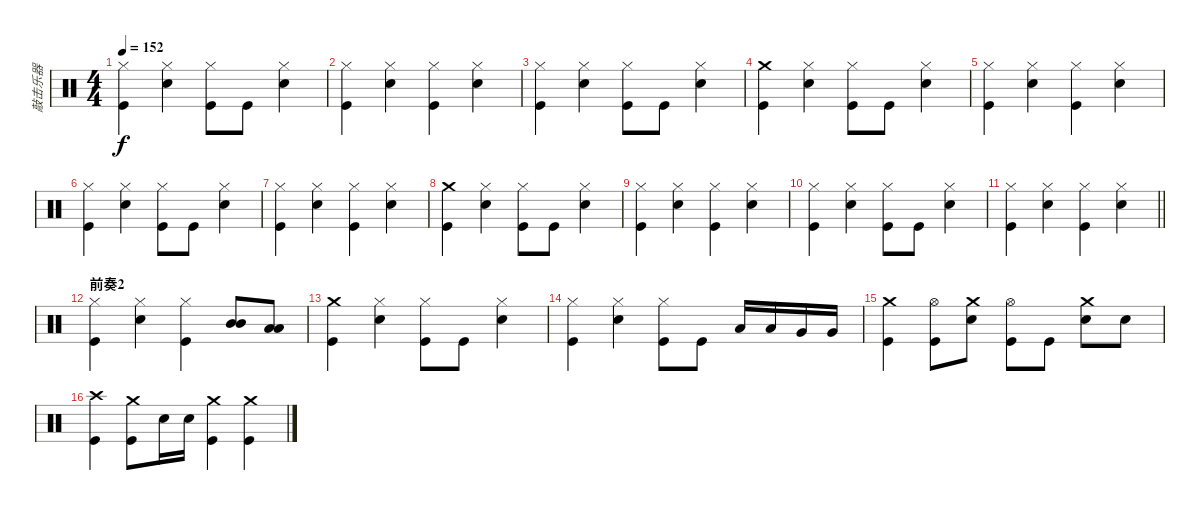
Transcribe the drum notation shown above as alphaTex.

\track ("敲击乐器" "敲击乐器") {instrument percussion}
\staff {score}
\articulation defaults
\ts (4 4)
\tempo 152
\clef neutral
\ks c
("Hi-Hat (closed)" "Kick (hit)").4{dy f} ("Hi-Hat (closed)" "Electric Snare (hit)").4 ("Hi-Hat (closed)" "Kick (hit)").8 "Kick (hit)".8 ("Hi-Hat (closed)" "Electric Snare (hit)").4 |
("Hi-Hat (closed)" "Kick (hit)").4 ("Hi-Hat (closed)" "Electric Snare (hit)").4 ("Hi-Hat (closed)" "Kick (hit)").4 ("Hi-Hat (closed)" "Electric Snare (hit)").4 |
("Hi-Hat (closed)" "Kick (hit)").4 ("Hi-Hat (closed)" "Electric Snare (hit)").4 ("Hi-Hat (closed)" "Kick (hit)").8 "Kick (hit)".8 ("Hi-Hat (closed)" "Electric Snare (hit)").4 |
("Crash medium (hit)" "Kick (hit)").4 ("Hi-Hat (closed)" "Electric Snare (hit)").4 ("Hi-Hat (closed)" "Kick (hit)").8 "Kick (hit)".8 ("Hi-Hat (closed)" "Electric Snare (hit)").4 |
("Hi-Hat (closed)" "Kick (hit)").4 ("Hi-Hat (closed)" "Electric Snare (hit)").4 ("Hi-Hat (closed)" "Kick (hit)").4 ("Hi-Hat (closed)" "Electric Snare (hit)").4 |
("Hi-Hat (closed)" "Kick (hit)").4 ("Hi-Hat (closed)" "Electric Snare (hit)").4 ("Hi-Hat (closed)" "Kick (hit)").8 "Kick (hit)".8 ("Hi-Hat (closed)" "Electric Snare (hit)").4 |
("Hi-Hat (closed)" "Kick (hit)").4 ("Hi-Hat (closed)" "Electric Snare (hit)").4 ("Hi-Hat (closed)" "Kick (hit)").4 ("Hi-Hat (closed)" "Electric Snare (hit)").4 |
("Crash medium (hit)" "Kick (hit)").4 ("Hi-Hat (closed)" "Electric Snare (hit)").4 ("Hi-Hat (closed)" "Kick (hit)").8 "Kick (hit)".8 ("Hi-Hat (closed)" "Electric Snare (hit)").4 |
("Hi-Hat (closed)" "Kick (hit)").4 ("Hi-Hat (closed)" "Electric Snare (hit)").4 ("Hi-Hat (closed)" "Kick (hit)").4 ("Hi-Hat (closed)" "Electric Snare (hit)").4 |
("Hi-Hat (closed)" "Kick (hit)").4 ("Hi-Hat (closed)" "Electric Snare (hit)").4 ("Hi-Hat (closed)" "Kick (hit)").8 "Kick (hit)".8 ("Hi-Hat (closed)" "Electric Snare (hit)").4 |
\barLineRight lightlight
("Hi-Hat (closed)" "Kick (hit)").4 ("Hi-Hat (closed)" "Electric Snare (hit)").4 ("Hi-Hat (closed)" "Kick (hit)").4 ("Hi-Hat (closed)" "Electric Snare (hit)").4 |
\section ("" "前奏2")
("Hi-Hat (closed)" "Kick (hit)").4 ("Hi-Hat (closed)" "Electric Snare (hit)").4 ("Hi-Hat (closed)" "Kick (hit)").4 ("Mid Tom (hit)" "Mid Tom (hit)").8 ("Low Tom (hit)" "Low Tom (hit)").8 |
("Crash medium (hit)" "Kick (hit)").4 ("Hi-Hat (closed)" "Electric Snare (hit)").4 ("Hi-Hat (closed)" "Kick (hit)").8 "Kick (hit)".8 ("Hi-Hat (closed)" "Electric Snare (hit)").4 |
("Hi-Hat (closed)" "Kick (hit)").4 ("Hi-Hat (closed)" "Electric Snare (hit)").4 ("Hi-Hat (closed)" "Kick (hit)").8 "Kick (hit)".8 "Low Tom (hit)".16 "Low Tom (hit)".16 "Very Low Tom (hit)".16 "Very Low Tom (hit)".16 |
("Crash medium (hit)" "Kick (hit)").4 ("Hi-Hat (open)" "Kick (hit)").8 ("Crash medium (hit)" "Electric Snare (hit)").8 ("Hi-Hat (open)" "Kick (hit)").8 "Kick (hit)".8 ("Crash medium (hit)" "Electric Snare (hit)").8 "Electric Snare (hit)".8 |
("Crash high (hit)" "Kick (hit)").4 ("Crash medium (hit)" "Kick (hit)").8 "Electric Snare (hit)".16 "Electric Snare (hit)".16 ("Crash medium (hit)" "Kick (hit)").4 ("Crash medium (hit)" "Kick (hit)").4
